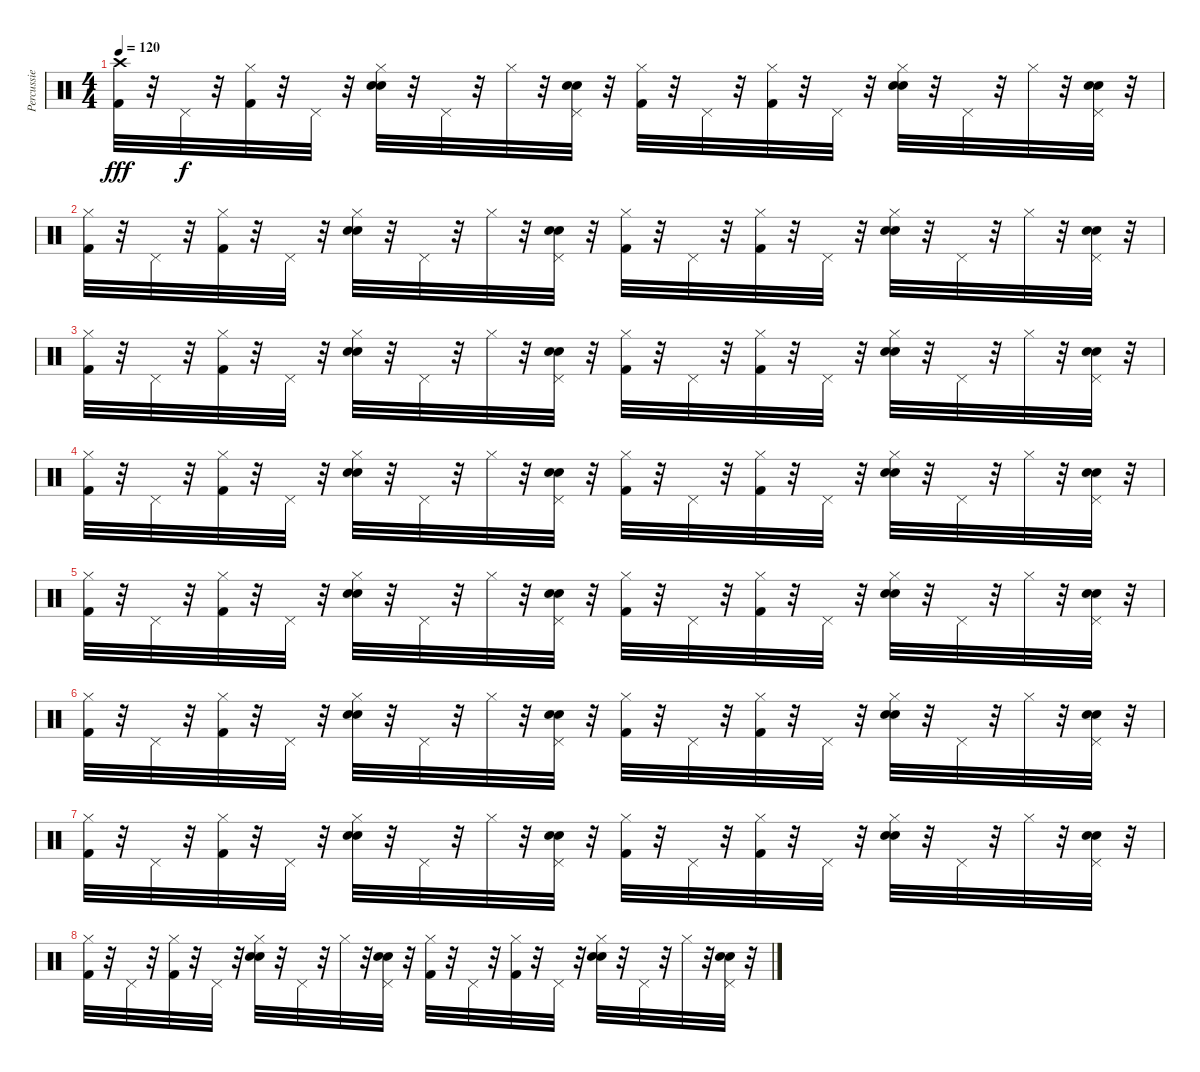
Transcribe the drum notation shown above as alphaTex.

\track ("Percussie" "Percussie") {instrument percussion}
\staff {score}
\articulation defaults
\ts (4 4)
\tempo 120
\clef neutral
\ks c
("Kick (hit) 2" "Crash high (hit)").32{dy fff} r.32 "Pedal Hi-Hat (hit)".32{dy f} r.32 ("Kick (hit) 2" "Hi-Hat (closed)").32 r.32 "Pedal Hi-Hat (hit)".32 r.32 ("Snare (hit) 2" "Electric Snare (hit)" "Hi-Hat (closed)").32 r.32 "Pedal Hi-Hat (hit)".32 r.32 "Hi-Hat (closed)".32 r.32 ("Snare (hit) 2" "Electric Snare (hit)" "Pedal Hi-Hat (hit)").32 r.32 ("Kick (hit) 2" "Hi-Hat (closed)").32 r.32 "Pedal Hi-Hat (hit)".32 r.32 ("Kick (hit) 2" "Hi-Hat (closed)").32 r.32 "Pedal Hi-Hat (hit)".32 r.32 ("Electric Snare (hit)" "Snare (hit) 2" "Hi-Hat (closed)").32 r.32 "Pedal Hi-Hat (hit)".32 r.32 "Hi-Hat (closed)".32 r.32 ("Pedal Hi-Hat (hit)" "Snare (hit) 2" "Electric Snare (hit)").32 r.32 |
("Hi-Hat (closed)" "Kick (hit) 2").32 r.32 "Pedal Hi-Hat (hit)".32 r.32 ("Kick (hit) 2" "Hi-Hat (closed)").32 r.32 "Pedal Hi-Hat (hit)".32 r.32 ("Snare (hit) 2" "Electric Snare (hit)" "Hi-Hat (closed)").32 r.32 "Pedal Hi-Hat (hit)".32 r.32 "Hi-Hat (closed)".32 r.32 ("Snare (hit) 2" "Electric Snare (hit)" "Pedal Hi-Hat (hit)").32 r.32 ("Kick (hit) 2" "Hi-Hat (closed)").32 r.32 "Pedal Hi-Hat (hit)".32 r.32 ("Kick (hit) 2" "Hi-Hat (closed)").32 r.32 "Pedal Hi-Hat (hit)".32 r.32 ("Electric Snare (hit)" "Snare (hit) 2" "Hi-Hat (closed)").32 r.32 "Pedal Hi-Hat (hit)".32 r.32 "Hi-Hat (closed)".32 r.32 ("Pedal Hi-Hat (hit)" "Snare (hit) 2" "Electric Snare (hit)").32 r.32 |
("Hi-Hat (closed)" "Kick (hit) 2").32 r.32 "Pedal Hi-Hat (hit)".32 r.32 ("Kick (hit) 2" "Hi-Hat (closed)").32 r.32 "Pedal Hi-Hat (hit)".32 r.32 ("Snare (hit) 2" "Electric Snare (hit)" "Hi-Hat (closed)").32 r.32 "Pedal Hi-Hat (hit)".32 r.32 "Hi-Hat (closed)".32 r.32 ("Snare (hit) 2" "Electric Snare (hit)" "Pedal Hi-Hat (hit)").32 r.32 ("Kick (hit) 2" "Hi-Hat (closed)").32 r.32 "Pedal Hi-Hat (hit)".32 r.32 ("Kick (hit) 2" "Hi-Hat (closed)").32 r.32 "Pedal Hi-Hat (hit)".32 r.32 ("Electric Snare (hit)" "Snare (hit) 2" "Hi-Hat (closed)").32 r.32 "Pedal Hi-Hat (hit)".32 r.32 "Hi-Hat (closed)".32 r.32 ("Pedal Hi-Hat (hit)" "Snare (hit) 2" "Electric Snare (hit)").32 r.32 |
("Hi-Hat (closed)" "Kick (hit) 2").32 r.32 "Pedal Hi-Hat (hit)".32 r.32 ("Kick (hit) 2" "Hi-Hat (closed)").32 r.32 "Pedal Hi-Hat (hit)".32 r.32 ("Snare (hit) 2" "Electric Snare (hit)" "Hi-Hat (closed)").32 r.32 "Pedal Hi-Hat (hit)".32 r.32 "Hi-Hat (closed)".32 r.32 ("Snare (hit) 2" "Electric Snare (hit)" "Pedal Hi-Hat (hit)").32 r.32 ("Kick (hit) 2" "Hi-Hat (closed)").32 r.32 "Pedal Hi-Hat (hit)".32 r.32 ("Kick (hit) 2" "Hi-Hat (closed)").32 r.32 "Pedal Hi-Hat (hit)".32 r.32 ("Electric Snare (hit)" "Snare (hit) 2" "Hi-Hat (closed)").32 r.32 "Pedal Hi-Hat (hit)".32 r.32 "Hi-Hat (closed)".32 r.32 ("Pedal Hi-Hat (hit)" "Snare (hit) 2" "Electric Snare (hit)").32 r.32 |
("Hi-Hat (closed)" "Kick (hit) 2").32 r.32 "Pedal Hi-Hat (hit)".32 r.32 ("Kick (hit) 2" "Hi-Hat (closed)").32 r.32 "Pedal Hi-Hat (hit)".32 r.32 ("Snare (hit) 2" "Electric Snare (hit)" "Hi-Hat (closed)").32 r.32 "Pedal Hi-Hat (hit)".32 r.32 "Hi-Hat (closed)".32 r.32 ("Snare (hit) 2" "Electric Snare (hit)" "Pedal Hi-Hat (hit)").32 r.32 ("Kick (hit) 2" "Hi-Hat (closed)").32 r.32 "Pedal Hi-Hat (hit)".32 r.32 ("Kick (hit) 2" "Hi-Hat (closed)").32 r.32 "Pedal Hi-Hat (hit)".32 r.32 ("Electric Snare (hit)" "Snare (hit) 2" "Hi-Hat (closed)").32 r.32 "Pedal Hi-Hat (hit)".32 r.32 "Hi-Hat (closed)".32 r.32 ("Pedal Hi-Hat (hit)" "Snare (hit) 2" "Electric Snare (hit)").32 r.32 |
("Hi-Hat (closed)" "Kick (hit) 2").32 r.32 "Pedal Hi-Hat (hit)".32 r.32 ("Kick (hit) 2" "Hi-Hat (closed)").32 r.32 "Pedal Hi-Hat (hit)".32 r.32 ("Snare (hit) 2" "Electric Snare (hit)" "Hi-Hat (closed)").32 r.32 "Pedal Hi-Hat (hit)".32 r.32 "Hi-Hat (closed)".32 r.32 ("Snare (hit) 2" "Electric Snare (hit)" "Pedal Hi-Hat (hit)").32 r.32 ("Kick (hit) 2" "Hi-Hat (closed)").32 r.32 "Pedal Hi-Hat (hit)".32 r.32 ("Kick (hit) 2" "Hi-Hat (closed)").32 r.32 "Pedal Hi-Hat (hit)".32 r.32 ("Electric Snare (hit)" "Snare (hit) 2" "Hi-Hat (closed)").32 r.32 "Pedal Hi-Hat (hit)".32 r.32 "Hi-Hat (closed)".32 r.32 ("Pedal Hi-Hat (hit)" "Snare (hit) 2" "Electric Snare (hit)").32 r.32 |
("Hi-Hat (closed)" "Kick (hit) 2").32 r.32 "Pedal Hi-Hat (hit)".32 r.32 ("Kick (hit) 2" "Hi-Hat (closed)").32 r.32 "Pedal Hi-Hat (hit)".32 r.32 ("Snare (hit) 2" "Electric Snare (hit)" "Hi-Hat (closed)").32 r.32 "Pedal Hi-Hat (hit)".32 r.32 "Hi-Hat (closed)".32 r.32 ("Snare (hit) 2" "Electric Snare (hit)" "Pedal Hi-Hat (hit)").32 r.32 ("Kick (hit) 2" "Hi-Hat (closed)").32 r.32 "Pedal Hi-Hat (hit)".32 r.32 ("Kick (hit) 2" "Hi-Hat (closed)").32 r.32 "Pedal Hi-Hat (hit)".32 r.32 ("Electric Snare (hit)" "Snare (hit) 2" "Hi-Hat (closed)").32 r.32 "Pedal Hi-Hat (hit)".32 r.32 "Hi-Hat (closed)".32 r.32 ("Pedal Hi-Hat (hit)" "Snare (hit) 2" "Electric Snare (hit)").32 r.32 |
("Hi-Hat (closed)" "Kick (hit) 2").32 r.32 "Pedal Hi-Hat (hit)".32 r.32 ("Kick (hit) 2" "Hi-Hat (closed)").32 r.32 "Pedal Hi-Hat (hit)".32 r.32 ("Snare (hit) 2" "Electric Snare (hit)" "Hi-Hat (closed)").32 r.32 "Pedal Hi-Hat (hit)".32 r.32 "Hi-Hat (closed)".32 r.32 ("Snare (hit) 2" "Electric Snare (hit)" "Pedal Hi-Hat (hit)").32 r.32 ("Kick (hit) 2" "Hi-Hat (closed)").32 r.32 "Pedal Hi-Hat (hit)".32 r.32 ("Kick (hit) 2" "Hi-Hat (closed)").32 r.32 "Pedal Hi-Hat (hit)".32 r.32 ("Electric Snare (hit)" "Snare (hit) 2" "Hi-Hat (closed)").32 r.32 "Pedal Hi-Hat (hit)".32 r.32 "Hi-Hat (closed)".32 r.32 ("Pedal Hi-Hat (hit)" "Snare (hit) 2" "Electric Snare (hit)").32 r.32
